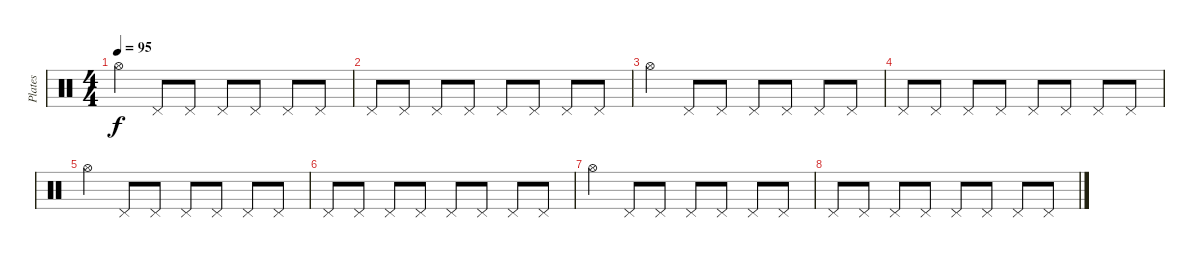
\track ("Plates" "Plates") {instrument percussion}
\staff {score}
\articulation defaults
\ts (4 4)
\tempo 95
\clef neutral
\ks c "Hi-Hat (open)".4{dy f} "Pedal Hi-Hat (hit)".8 "Pedal Hi-Hat (hit)".8 "Pedal Hi-Hat (hit)".8 "Pedal Hi-Hat (hit)".8 "Pedal Hi-Hat (hit)".8 "Pedal Hi-Hat (hit)".8
|
"Pedal Hi-Hat (hit)".8 "Pedal Hi-Hat (hit)".8 "Pedal Hi-Hat (hit)".8 "Pedal Hi-Hat (hit)".8 "Pedal Hi-Hat (hit)".8 "Pedal Hi-Hat (hit)".8 "Pedal Hi-Hat (hit)".8 "Pedal Hi-Hat (hit)".8 |
"Hi-Hat (open)".4 "Pedal Hi-Hat (hit)".8 "Pedal Hi-Hat (hit)".8 "Pedal Hi-Hat (hit)".8 "Pedal Hi-Hat (hit)".8 "Pedal Hi-Hat (hit)".8 "Pedal Hi-Hat (hit)".8 |
"Pedal Hi-Hat (hit)".8 "Pedal Hi-Hat (hit)".8 "Pedal Hi-Hat (hit)".8 "Pedal Hi-Hat (hit)".8 "Pedal Hi-Hat (hit)".8 "Pedal Hi-Hat (hit)".8 "Pedal Hi-Hat (hit)".8 "Pedal Hi-Hat (hit)".8 |
"Hi-Hat (open)".4 "Pedal Hi-Hat (hit)".8 "Pedal Hi-Hat (hit)".8 "Pedal Hi-Hat (hit)".8 "Pedal Hi-Hat (hit)".8 "Pedal Hi-Hat (hit)".8 "Pedal Hi-Hat (hit)".8 |
"Pedal Hi-Hat (hit)".8{volume 0} "Pedal Hi-Hat (hit)".8 "Pedal Hi-Hat (hit)".8 "Pedal Hi-Hat (hit)".8 "Pedal Hi-Hat (hit)".8 "Pedal Hi-Hat (hit)".8 "Pedal Hi-Hat (hit)".8 "Pedal Hi-Hat (hit)".8 |
"Hi-Hat (open)".4 "Pedal Hi-Hat (hit)".8 "Pedal Hi-Hat (hit)".8 "Pedal Hi-Hat (hit)".8 "Pedal Hi-Hat (hit)".8 "Pedal Hi-Hat (hit)".8 "Pedal Hi-Hat (hit)".8 |
"Pedal Hi-Hat (hit)".8 "Pedal Hi-Hat (hit)".8 "Pedal Hi-Hat (hit)".8 "Pedal Hi-Hat (hit)".8 "Pedal Hi-Hat (hit)".8 "Pedal Hi-Hat (hit)".8 "Pedal Hi-Hat (hit)".8 "Pedal Hi-Hat (hit)".8
